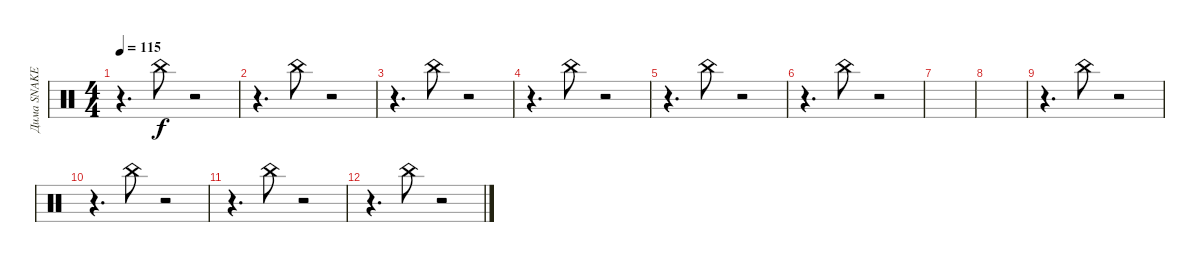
\track ("Дима SNAKE Хакимов" "Дима SNAKE") {instrument percussion}
\staff {score}
\articulation defaults
\ts (4 4)
\tempo 115
\clef neutral
\ks c
r.4{d dy f} "China (hit)".8 r.2 |
r.4{d} "China (hit)".8 r.2 |
r.4{d} "China (hit)".8 r.2 |
r.4{d} "China (hit)".8 r.2 |
r.4{d} "China (hit)".8 r.2 |
r.4{d} "China (hit)".8 r.2 |
|
|
r.4{d} "China (hit)".8 r.2 |
r.4{d} "China (hit)".8 r.2 |
r.4{d} "China (hit)".8 r.2 |
r.4{d} "China (hit)".8 r.2
